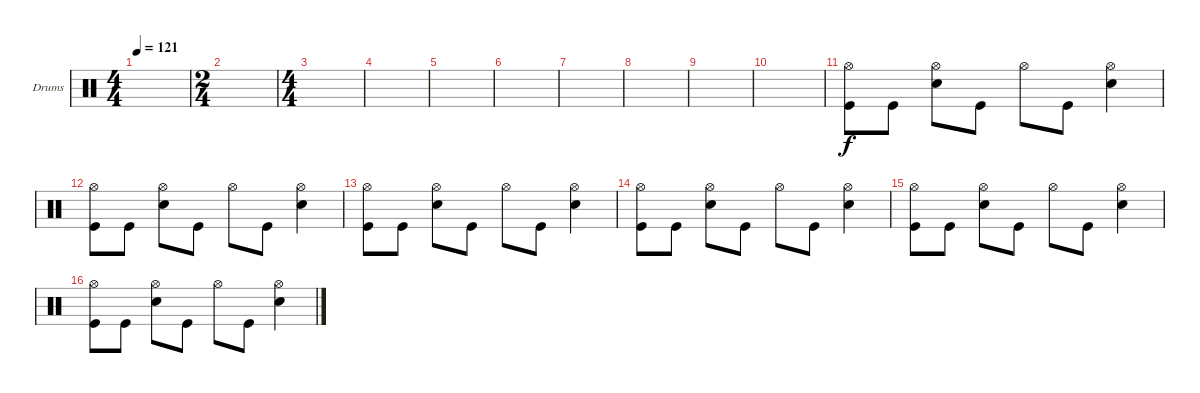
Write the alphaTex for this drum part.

\bracketExtendMode groupsimilarinstruments
\firstSystemTrackNameOrientation horizontal
\otherSystemsTrackNameOrientation horizontal
\track ("Drumkit" "Drums") {instrument percussion}
\staff {score}
\articulation defaults
\ts (4 4)
\tempo 121
\clef neutral
\ks c
|
\ts (2 4)
|
\ts (4 4)
|
|
|
|
|
|
|
|
("Kick (hit)" "Hi-Hat (open)").8 "Kick (hit)".8 ("Snare (hit) 2" "Hi-Hat (open)").8 "Kick (hit)".8 "Hi-Hat (open)".8 "Kick (hit)".8 ("Snare (hit) 2" "Hi-Hat (open)").4 |
("Kick (hit)" "Hi-Hat (open)").8 "Kick (hit)".8 ("Snare (hit) 2" "Hi-Hat (open)").8 "Kick (hit)".8 "Hi-Hat (open)".8 "Kick (hit)".8 ("Snare (hit) 2" "Hi-Hat (open)").4 |
("Kick (hit)" "Hi-Hat (open)").8 "Kick (hit)".8 ("Snare (hit) 2" "Hi-Hat (open)").8 "Kick (hit)".8 "Hi-Hat (open)".8 "Kick (hit)".8 ("Snare (hit) 2" "Hi-Hat (open)").4 |
("Kick (hit)" "Hi-Hat (open)").8 "Kick (hit)".8 ("Snare (hit) 2" "Hi-Hat (open)").8 "Kick (hit)".8 "Hi-Hat (open)".8 "Kick (hit)".8 ("Snare (hit) 2" "Hi-Hat (open)").4 |
("Kick (hit)" "Hi-Hat (open)").8 "Kick (hit)".8 ("Snare (hit) 2" "Hi-Hat (open)").8 "Kick (hit)".8 "Hi-Hat (open)".8 "Kick (hit)".8 ("Snare (hit) 2" "Hi-Hat (open)").4 |
("Kick (hit)" "Hi-Hat (open)").8 "Kick (hit)".8 ("Snare (hit) 2" "Hi-Hat (open)").8 "Kick (hit)".8 "Hi-Hat (open)".8 "Kick (hit)".8 ("Snare (hit) 2" "Hi-Hat (open)").4
